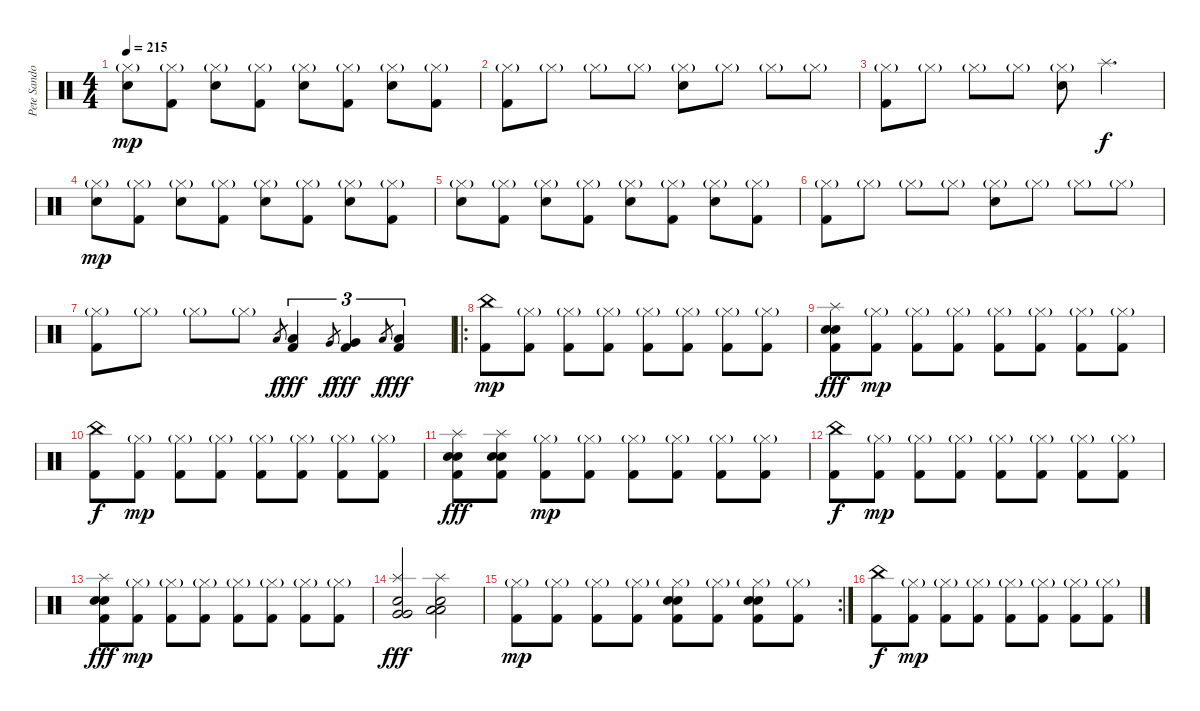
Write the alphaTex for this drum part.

\track ("Pete Sandoval" "Pete Sando") {instrument percussion}
\staff {score}
\articulation defaults
\ts (4 4)
\tempo 215
\clef neutral
\ks c
("Hi-Hat (closed)"{g} "Snare (hit) 2").8{dy mp} ("Hi-Hat (closed)"{g} "Kick (hit) 2").8 ("Hi-Hat (closed)"{g} "Snare (hit) 2").8 ("Hi-Hat (closed)"{g} "Kick (hit) 2").8 ("Hi-Hat (closed)"{g} "Snare (hit) 2").8 ("Hi-Hat (closed)"{g} "Kick (hit) 2").8 ("Hi-Hat (closed)"{g} "Snare (hit) 2").8 ("Hi-Hat (closed)"{g} "Kick (hit) 2").8 |
("Hi-Hat (closed)"{g} "Kick (hit) 2").8 "Hi-Hat (closed)"{g}.8 "Hi-Hat (closed)"{g}.8 "Hi-Hat (closed)"{g}.8 ("Hi-Hat (closed)"{g} "Snare (hit) 2").8 "Hi-Hat (closed)"{g}.8 "Hi-Hat (closed)"{g}.8 "Hi-Hat (closed)"{g}.8 |
("Hi-Hat (closed)"{g} "Kick (hit) 2").8 "Hi-Hat (closed)"{g}.8 "Hi-Hat (closed)"{g}.8 "Hi-Hat (closed)"{g}.8 ("Hi-Hat (closed)"{g} "Snare (hit) 2").8 "Splash (hit)".4{d dy f} |
("Hi-Hat (closed)"{g} "Snare (hit) 2").8{dy mp} ("Hi-Hat (closed)"{g} "Kick (hit) 2").8 ("Hi-Hat (closed)"{g} "Snare (hit) 2").8 ("Hi-Hat (closed)"{g} "Kick (hit) 2").8 ("Hi-Hat (closed)"{g} "Snare (hit) 2").8 ("Hi-Hat (closed)"{g} "Kick (hit) 2").8 ("Hi-Hat (closed)"{g} "Snare (hit) 2").8 ("Hi-Hat (closed)"{g} "Kick (hit) 2").8 |
("Hi-Hat (closed)"{g} "Snare (hit) 2").8 ("Hi-Hat (closed)"{g} "Kick (hit) 2").8 ("Hi-Hat (closed)"{g} "Snare (hit) 2").8 ("Hi-Hat (closed)"{g} "Kick (hit) 2").8 ("Hi-Hat (closed)"{g} "Snare (hit) 2").8 ("Hi-Hat (closed)"{g} "Kick (hit) 2").8 ("Hi-Hat (closed)"{g} "Snare (hit) 2").8 ("Hi-Hat (closed)"{g} "Kick (hit) 2").8 |
("Hi-Hat (closed)"{g} "Kick (hit) 2").8 "Hi-Hat (closed)"{g}.8 "Hi-Hat (closed)"{g}.8 "Hi-Hat (closed)"{g}.8 ("Hi-Hat (closed)"{g} "Snare (hit) 2").8 "Hi-Hat (closed)"{g}.8 "Hi-Hat (closed)"{g}.8 "Hi-Hat (closed)"{g}.8 |
("Hi-Hat (closed)"{g} "Kick (hit) 2").8 "Hi-Hat (closed)"{g}.8 "Hi-Hat (closed)"{g}.8 "Hi-Hat (closed)"{g}.8 "Low Tom (hit)".8{gr dy f} ("Low Tom (hit)" "Kick (hit) 2").4{tu (3 2) dy fff} "Very Low Tom (hit)".8{gr dy f} ("Very Low Tom (hit)" "Kick (hit) 2").4{tu (3 2) dy fff} "Low Floor Tom (hit)".8{gr dy f} ("Low Floor Tom (hit)" "Kick (hit) 2").4{tu (3 2) dy fff} |
\ro
("China (hit)" "Kick (hit) 2").8{dy mp} ("Hi-Hat (closed)"{g} "Kick (hit) 2").8 ("Hi-Hat (closed)"{g} "Kick (hit) 2").8 ("Hi-Hat (closed)"{g} "Kick (hit) 2").8 ("Hi-Hat (closed)"{g} "Kick (hit) 2").8 ("Hi-Hat (closed)"{g} "Kick (hit) 2").8 ("Hi-Hat (closed)"{g} "Kick (hit) 2").8 ("Hi-Hat (closed)"{g} "Kick (hit) 2").8 |
("Splash (hit)" "Snare (hit) 2" "Snare (hit) 2" "Kick (hit) 2").8{dy fff} ("Hi-Hat (closed)"{g} "Kick (hit) 2").8{dy mp} ("Hi-Hat (closed)"{g} "Kick (hit) 2").8 ("Hi-Hat (closed)"{g} "Kick (hit) 2").8 ("Hi-Hat (closed)"{g} "Kick (hit) 2").8 ("Hi-Hat (closed)"{g} "Kick (hit) 2").8 ("Hi-Hat (closed)"{g} "Kick (hit) 2").8 ("Hi-Hat (closed)"{g} "Kick (hit) 2").8 |
("China (hit)" "Kick (hit) 2").8{dy f} ("Hi-Hat (closed)"{g} "Kick (hit) 2").8{dy mp} ("Hi-Hat (closed)"{g} "Kick (hit) 2").8 ("Hi-Hat (closed)"{g} "Kick (hit) 2").8 ("Hi-Hat (closed)"{g} "Kick (hit) 2").8 ("Hi-Hat (closed)"{g} "Kick (hit) 2").8 ("Hi-Hat (closed)"{g} "Kick (hit) 2").8 ("Hi-Hat (closed)"{g} "Kick (hit) 2").8 |
("Splash (hit)" "Snare (hit) 2" "Snare (hit) 2" "Kick (hit) 2").8{dy fff} ("Splash (hit)" "Snare (hit) 2" "Snare (hit) 2" "Kick (hit) 2").8 ("Hi-Hat (closed)"{g} "Kick (hit) 2").8{dy mp} ("Hi-Hat (closed)"{g} "Kick (hit) 2").8 ("Hi-Hat (closed)"{g} "Kick (hit) 2").8 ("Hi-Hat (closed)"{g} "Kick (hit) 2").8 ("Hi-Hat (closed)"{g} "Kick (hit) 2").8 ("Hi-Hat (closed)"{g} "Kick (hit) 2").8 |
("China (hit)" "Kick (hit) 2").8{dy f} ("Hi-Hat (closed)"{g} "Kick (hit) 2").8{dy mp} ("Hi-Hat (closed)"{g} "Kick (hit) 2").8 ("Hi-Hat (closed)"{g} "Kick (hit) 2").8 ("Hi-Hat (closed)"{g} "Kick (hit) 2").8 ("Hi-Hat (closed)"{g} "Kick (hit) 2").8 ("Hi-Hat (closed)"{g} "Kick (hit) 2").8 ("Hi-Hat (closed)"{g} "Kick (hit) 2").8 |
("Splash (hit)" "Snare (hit) 2" "Snare (hit) 2" "Kick (hit) 2").8{dy fff} ("Hi-Hat (closed)"{g} "Kick (hit) 2").8{dy mp} ("Hi-Hat (closed)"{g} "Kick (hit) 2").8 ("Hi-Hat (closed)"{g} "Kick (hit) 2").8 ("Hi-Hat (closed)"{g} "Kick (hit) 2").8 ("Hi-Hat (closed)"{g} "Kick (hit) 2").8 ("Hi-Hat (closed)"{g} "Kick (hit) 2").8 ("Hi-Hat (closed)"{g} "Kick (hit) 2").8 |
("Splash (hit)" "Snare (hit) 2" "Very Low Tom (hit)" "Very Low Tom (hit)").2{dy fff} ("Splash (hit)" "Snare (hit) 2" "Low Floor Tom (hit)" "Low Floor Tom (hit)").2 |
\rc 2
("Hi-Hat (closed)"{g} "Kick (hit) 2").8{dy mp} ("Hi-Hat (closed)"{g} "Kick (hit) 2").8 ("Hi-Hat (closed)"{g} "Kick (hit) 2").8 ("Hi-Hat (closed)"{g} "Kick (hit) 2").8 ("Hi-Hat (closed)"{g} "Snare (hit) 2" "Snare (hit) 2" "Kick (hit) 2").8 ("Hi-Hat (closed)"{g} "Kick (hit) 2").8 ("Hi-Hat (closed)"{g} "Snare (hit) 2" "Snare (hit) 2" "Kick (hit) 2").8 ("Hi-Hat (closed)"{g} "Kick (hit) 2").8 |
("China (hit)" "Kick (hit) 2").8{dy f} ("Hi-Hat (closed)"{g} "Kick (hit) 2").8{dy mp} ("Hi-Hat (closed)"{g} "Kick (hit) 2").8 ("Hi-Hat (closed)"{g} "Kick (hit) 2").8 ("Hi-Hat (closed)"{g} "Kick (hit) 2").8 ("Hi-Hat (closed)"{g} "Kick (hit) 2").8 ("Hi-Hat (closed)"{g} "Kick (hit) 2").8 ("Hi-Hat (closed)"{g} "Kick (hit) 2").8
